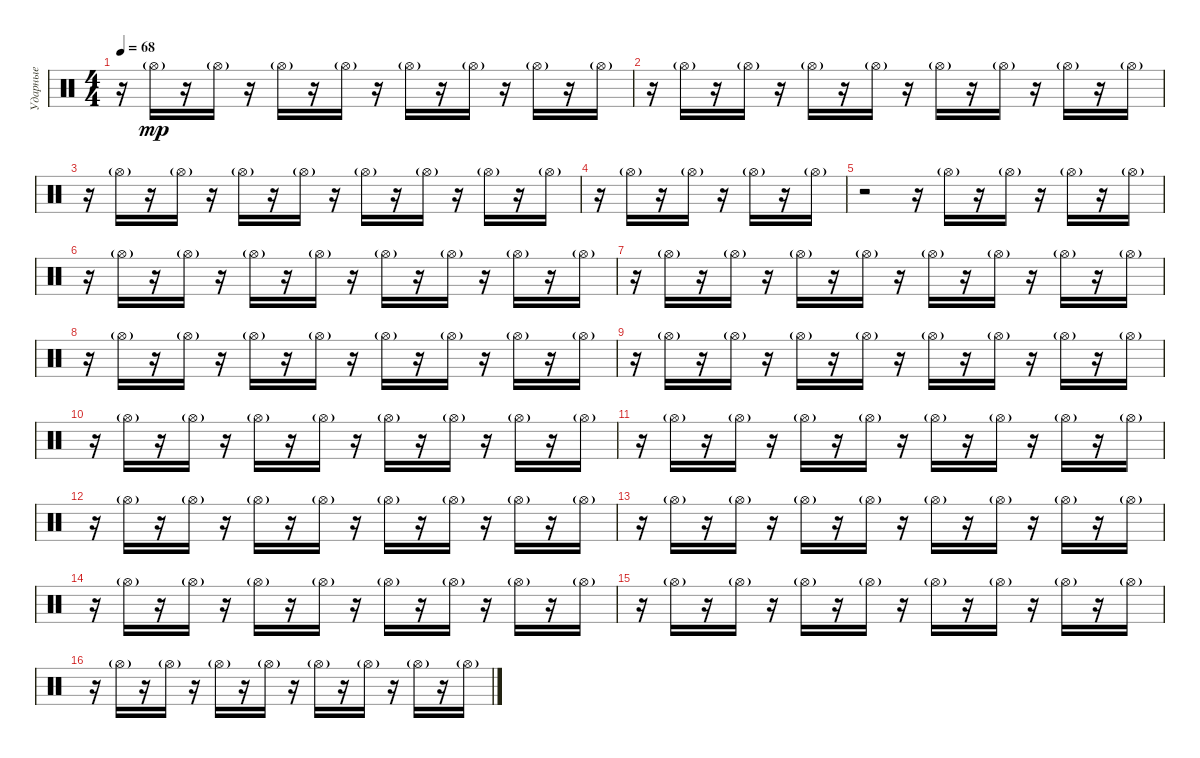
\track ("Ударные" "Ударные") {instrument percussion}
\staff {score}
\articulation defaults
\ts (4 4)
\tempo 68
\clef neutral
\ks c
r.16{dy mp} "Hi-Hat (open)"{g}.16 r.16 "Hi-Hat (open)"{g}.16 r.16 "Hi-Hat (open)"{g}.16 r.16 "Hi-Hat (open)"{g}.16 r.16 "Hi-Hat (open)"{g}.16 r.16 "Hi-Hat (open)"{g}.16 r.16 "Hi-Hat (open)"{g}.16 r.16 "Hi-Hat (open)"{g}.16 |
r.16 "Hi-Hat (open)"{g}.16 r.16 "Hi-Hat (open)"{g}.16 r.16 "Hi-Hat (open)"{g}.16 r.16 "Hi-Hat (open)"{g}.16 r.16 "Hi-Hat (open)"{g}.16 r.16 "Hi-Hat (open)"{g}.16 r.16 "Hi-Hat (open)"{g}.16 r.16 "Hi-Hat (open)"{g}.16 |
r.16 "Hi-Hat (open)"{g}.16 r.16 "Hi-Hat (open)"{g}.16 r.16 "Hi-Hat (open)"{g}.16 r.16 "Hi-Hat (open)"{g}.16 r.16 "Hi-Hat (open)"{g}.16 r.16 "Hi-Hat (open)"{g}.16 r.16 "Hi-Hat (open)"{g}.16 r.16 "Hi-Hat (open)"{g}.16 |
r.16 "Hi-Hat (open)"{g}.16 r.16 "Hi-Hat (open)"{g}.16 r.16 "Hi-Hat (open)"{g}.16 r.16 "Hi-Hat (open)"{g}.16 |
r.2 r.16{volume 12} "Hi-Hat (open)"{g}.16 r.16 "Hi-Hat (open)"{g}.16 r.16 "Hi-Hat (open)"{g}.16 r.16 "Hi-Hat (open)"{g}.16 |
r.16 "Hi-Hat (open)"{g}.16 r.16 "Hi-Hat (open)"{g}.16 r.16 "Hi-Hat (open)"{g}.16 r.16 "Hi-Hat (open)"{g}.16 r.16 "Hi-Hat (open)"{g}.16 r.16 "Hi-Hat (open)"{g}.16 r.16 "Hi-Hat (open)"{g}.16 r.16 "Hi-Hat (open)"{g}.16 |
r.16 "Hi-Hat (open)"{g}.16 r.16 "Hi-Hat (open)"{g}.16 r.16 "Hi-Hat (open)"{g}.16 r.16 "Hi-Hat (open)"{g}.16 r.16 "Hi-Hat (open)"{g}.16 r.16 "Hi-Hat (open)"{g}.16 r.16 "Hi-Hat (open)"{g}.16 r.16 "Hi-Hat (open)"{g}.16 |
r.16 "Hi-Hat (open)"{g}.16 r.16 "Hi-Hat (open)"{g}.16 r.16 "Hi-Hat (open)"{g}.16 r.16 "Hi-Hat (open)"{g}.16 r.16 "Hi-Hat (open)"{g}.16 r.16 "Hi-Hat (open)"{g}.16 r.16 "Hi-Hat (open)"{g}.16 r.16 "Hi-Hat (open)"{g}.16 |
r.16 "Hi-Hat (open)"{g}.16 r.16 "Hi-Hat (open)"{g}.16 r.16 "Hi-Hat (open)"{g}.16 r.16 "Hi-Hat (open)"{g}.16 r.16 "Hi-Hat (open)"{g}.16 r.16 "Hi-Hat (open)"{g}.16 r.16 "Hi-Hat (open)"{g}.16 r.16 "Hi-Hat (open)"{g}.16 |
r.16 "Hi-Hat (open)"{g}.16 r.16 "Hi-Hat (open)"{g}.16 r.16 "Hi-Hat (open)"{g}.16 r.16 "Hi-Hat (open)"{g}.16 r.16 "Hi-Hat (open)"{g}.16 r.16 "Hi-Hat (open)"{g}.16 r.16 "Hi-Hat (open)"{g}.16 r.16 "Hi-Hat (open)"{g}.16 |
r.16 "Hi-Hat (open)"{g}.16 r.16 "Hi-Hat (open)"{g}.16 r.16 "Hi-Hat (open)"{g}.16 r.16 "Hi-Hat (open)"{g}.16 r.16 "Hi-Hat (open)"{g}.16 r.16 "Hi-Hat (open)"{g}.16 r.16 "Hi-Hat (open)"{g}.16 r.16 "Hi-Hat (open)"{g}.16 |
r.16 "Hi-Hat (open)"{g}.16 r.16 "Hi-Hat (open)"{g}.16 r.16 "Hi-Hat (open)"{g}.16 r.16 "Hi-Hat (open)"{g}.16 r.16 "Hi-Hat (open)"{g}.16 r.16 "Hi-Hat (open)"{g}.16 r.16 "Hi-Hat (open)"{g}.16 r.16 "Hi-Hat (open)"{g}.16 |
r.16 "Hi-Hat (open)"{g}.16 r.16 "Hi-Hat (open)"{g}.16 r.16 "Hi-Hat (open)"{g}.16 r.16 "Hi-Hat (open)"{g}.16 r.16 "Hi-Hat (open)"{g}.16 r.16 "Hi-Hat (open)"{g}.16 r.16 "Hi-Hat (open)"{g}.16 r.16 "Hi-Hat (open)"{g}.16 |
r.16 "Hi-Hat (open)"{g}.16 r.16 "Hi-Hat (open)"{g}.16 r.16 "Hi-Hat (open)"{g}.16 r.16 "Hi-Hat (open)"{g}.16 r.16 "Hi-Hat (open)"{g}.16 r.16 "Hi-Hat (open)"{g}.16 r.16 "Hi-Hat (open)"{g}.16 r.16 "Hi-Hat (open)"{g}.16 |
r.16 "Hi-Hat (open)"{g}.16 r.16 "Hi-Hat (open)"{g}.16 r.16 "Hi-Hat (open)"{g}.16 r.16 "Hi-Hat (open)"{g}.16 r.16 "Hi-Hat (open)"{g}.16 r.16 "Hi-Hat (open)"{g}.16 r.16 "Hi-Hat (open)"{g}.16 r.16 "Hi-Hat (open)"{g}.16 |
r.16 "Hi-Hat (open)"{g}.16 r.16 "Hi-Hat (open)"{g}.16 r.16 "Hi-Hat (open)"{g}.16 r.16 "Hi-Hat (open)"{g}.16 r.16 "Hi-Hat (open)"{g}.16 r.16 "Hi-Hat (open)"{g}.16 r.16 "Hi-Hat (open)"{g}.16 r.16 "Hi-Hat (open)"{g}.16
